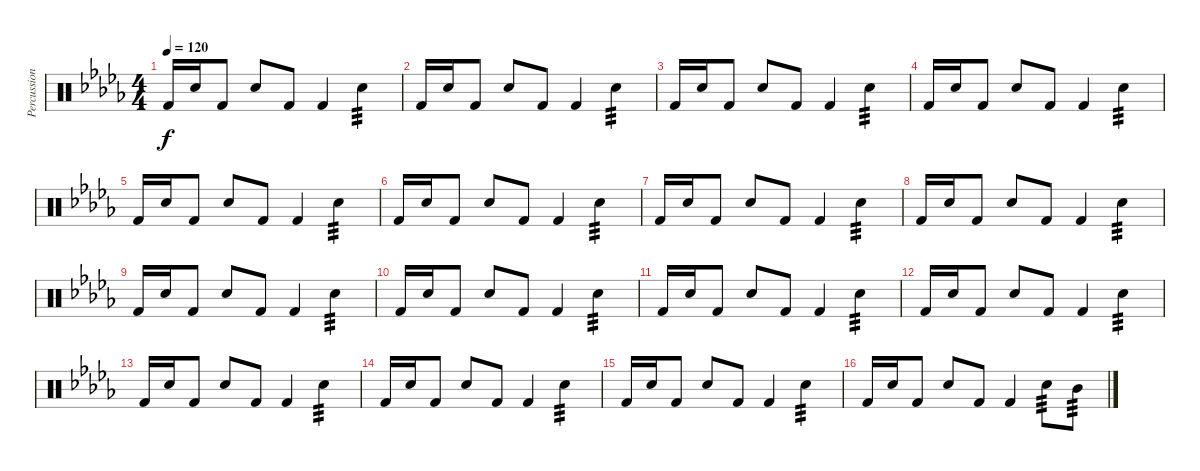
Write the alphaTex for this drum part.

\track ("Percussion" "Percussion") {instrument percussion}
\staff {score}
\articulation defaults
\ts (4 4)
\tempo 120
\clef neutral
\ks db "Kick (hit) 2".16{dy f} "Electric Snare (hit)".16 "Kick (hit) 2".8 "Electric Snare (hit)".8 "Kick (hit) 2".8 "Kick (hit) 2".4 "Electric Snare (hit)".4{tp 3}
|
"Kick (hit) 2".16 "Electric Snare (hit)".16 "Kick (hit) 2".8 "Electric Snare (hit)".8 "Kick (hit) 2".8 "Kick (hit) 2".4 "Electric Snare (hit)".4{tp 3} |
"Kick (hit) 2".16 "Electric Snare (hit)".16 "Kick (hit) 2".8 "Electric Snare (hit)".8 "Kick (hit) 2".8 "Kick (hit) 2".4 "Electric Snare (hit)".4{tp 3} |
"Kick (hit) 2".16 "Electric Snare (hit)".16 "Kick (hit) 2".8 "Electric Snare (hit)".8 "Kick (hit) 2".8 "Kick (hit) 2".4 "Electric Snare (hit)".4{tp 3} |
"Kick (hit) 2".16 "Electric Snare (hit)".16 "Kick (hit) 2".8 "Electric Snare (hit)".8 "Kick (hit) 2".8 "Kick (hit) 2".4 "Electric Snare (hit)".4{tp 3} |
"Kick (hit) 2".16 "Electric Snare (hit)".16 "Kick (hit) 2".8 "Electric Snare (hit)".8 "Kick (hit) 2".8 "Kick (hit) 2".4 "Electric Snare (hit)".4{tp 3} |
"Kick (hit) 2".16 "Electric Snare (hit)".16 "Kick (hit) 2".8 "Electric Snare (hit)".8 "Kick (hit) 2".8 "Kick (hit) 2".4 "Electric Snare (hit)".4{tp 3} |
"Kick (hit) 2".16 "Electric Snare (hit)".16 "Kick (hit) 2".8 "Electric Snare (hit)".8 "Kick (hit) 2".8 "Kick (hit) 2".4 "Electric Snare (hit)".4{tp 3} |
"Kick (hit) 2".16 "Electric Snare (hit)".16 "Kick (hit) 2".8 "Electric Snare (hit)".8 "Kick (hit) 2".8 "Kick (hit) 2".4 "Electric Snare (hit)".4{tp 3} |
"Kick (hit) 2".16 "Electric Snare (hit)".16 "Kick (hit) 2".8 "Electric Snare (hit)".8 "Kick (hit) 2".8 "Kick (hit) 2".4 "Electric Snare (hit)".4{tp 3} |
"Kick (hit) 2".16 "Electric Snare (hit)".16 "Kick (hit) 2".8 "Electric Snare (hit)".8 "Kick (hit) 2".8 "Kick (hit) 2".4 "Electric Snare (hit)".4{tp 3} |
"Kick (hit) 2".16 "Electric Snare (hit)".16 "Kick (hit) 2".8 "Electric Snare (hit)".8 "Kick (hit) 2".8 "Kick (hit) 2".4 "Electric Snare (hit)".4{tp 3} |
"Kick (hit) 2".16 "Electric Snare (hit)".16 "Kick (hit) 2".8 "Electric Snare (hit)".8 "Kick (hit) 2".8 "Kick (hit) 2".4 "Electric Snare (hit)".4{tp 3} |
"Kick (hit) 2".16 "Electric Snare (hit)".16 "Kick (hit) 2".8 "Electric Snare (hit)".8 "Kick (hit) 2".8 "Kick (hit) 2".4 "Electric Snare (hit)".4{tp 3} |
"Kick (hit) 2".16 "Electric Snare (hit)".16 "Kick (hit) 2".8 "Electric Snare (hit)".8 "Kick (hit) 2".8 "Kick (hit) 2".4 "Electric Snare (hit)".4{tp 3} |
"Kick (hit) 2".16 "Electric Snare (hit)".16 "Kick (hit) 2".8 "Electric Snare (hit)".8 "Kick (hit) 2".8 "Kick (hit) 2".4 "Electric Snare (hit)".8{tp 3} "Mid Tom (hit)".8{tp 3}
